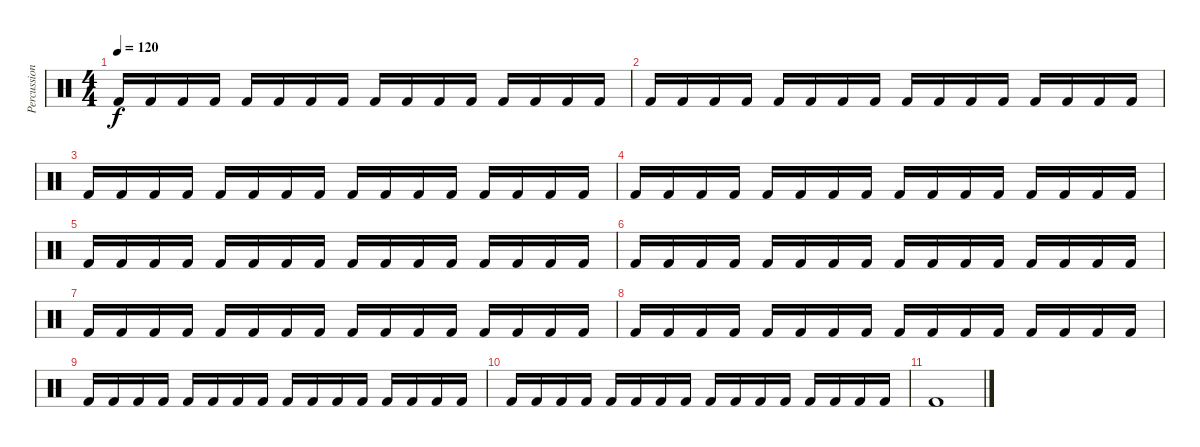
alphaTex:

\track ("Percussioni" "Percussion") {instrument percussion}
\staff
\articulation defaults
\ts (4 4)
\tempo 120
\clef neutral
\ks c "Kick (hit) 2".16{dy f} "Kick (hit) 2".16 "Kick (hit) 2".16 "Kick (hit) 2".16 "Kick (hit) 2".16 "Kick (hit) 2".16 "Kick (hit) 2".16 "Kick (hit) 2".16 "Kick (hit) 2".16 "Kick (hit) 2".16 "Kick (hit) 2".16 "Kick (hit) 2".16 "Kick (hit) 2".16 "Kick (hit) 2".16 "Kick (hit) 2".16 "Kick (hit) 2".16
|
"Kick (hit) 2".16 "Kick (hit) 2".16 "Kick (hit) 2".16 "Kick (hit) 2".16 "Kick (hit) 2".16 "Kick (hit) 2".16 "Kick (hit) 2".16 "Kick (hit) 2".16 "Kick (hit) 2".16 "Kick (hit) 2".16 "Kick (hit) 2".16 "Kick (hit) 2".16 "Kick (hit) 2".16 "Kick (hit) 2".16 "Kick (hit) 2".16 "Kick (hit) 2".16 |
"Kick (hit) 2".16 "Kick (hit) 2".16 "Kick (hit) 2".16 "Kick (hit) 2".16 "Kick (hit) 2".16 "Kick (hit) 2".16 "Kick (hit) 2".16 "Kick (hit) 2".16 "Kick (hit) 2".16 "Kick (hit) 2".16 "Kick (hit) 2".16 "Kick (hit) 2".16 "Kick (hit) 2".16 "Kick (hit) 2".16 "Kick (hit) 2".16 "Kick (hit) 2".16 |
"Kick (hit) 2".16 "Kick (hit) 2".16 "Kick (hit) 2".16 "Kick (hit) 2".16 "Kick (hit) 2".16 "Kick (hit) 2".16 "Kick (hit) 2".16 "Kick (hit) 2".16 "Kick (hit) 2".16 "Kick (hit) 2".16 "Kick (hit) 2".16 "Kick (hit) 2".16 "Kick (hit) 2".16 "Kick (hit) 2".16 "Kick (hit) 2".16 "Kick (hit) 2".16 |
"Kick (hit) 2".16 "Kick (hit) 2".16 "Kick (hit) 2".16 "Kick (hit) 2".16 "Kick (hit) 2".16 "Kick (hit) 2".16 "Kick (hit) 2".16 "Kick (hit) 2".16 "Kick (hit) 2".16 "Kick (hit) 2".16 "Kick (hit) 2".16 "Kick (hit) 2".16 "Kick (hit) 2".16 "Kick (hit) 2".16 "Kick (hit) 2".16 "Kick (hit) 2".16 |
"Kick (hit) 2".16 "Kick (hit) 2".16 "Kick (hit) 2".16 "Kick (hit) 2".16 "Kick (hit) 2".16 "Kick (hit) 2".16 "Kick (hit) 2".16 "Kick (hit) 2".16 "Kick (hit) 2".16 "Kick (hit) 2".16 "Kick (hit) 2".16 "Kick (hit) 2".16 "Kick (hit) 2".16 "Kick (hit) 2".16 "Kick (hit) 2".16 "Kick (hit) 2".16 |
"Kick (hit) 2".16 "Kick (hit) 2".16 "Kick (hit) 2".16 "Kick (hit) 2".16 "Kick (hit) 2".16 "Kick (hit) 2".16 "Kick (hit) 2".16 "Kick (hit) 2".16 "Kick (hit) 2".16 "Kick (hit) 2".16 "Kick (hit) 2".16 "Kick (hit) 2".16 "Kick (hit) 2".16 "Kick (hit) 2".16 "Kick (hit) 2".16 "Kick (hit) 2".16 |
"Kick (hit) 2".16 "Kick (hit) 2".16 "Kick (hit) 2".16 "Kick (hit) 2".16 "Kick (hit) 2".16 "Kick (hit) 2".16 "Kick (hit) 2".16 "Kick (hit) 2".16 "Kick (hit) 2".16 "Kick (hit) 2".16 "Kick (hit) 2".16 "Kick (hit) 2".16 "Kick (hit) 2".16 "Kick (hit) 2".16 "Kick (hit) 2".16 "Kick (hit) 2".16 |
"Kick (hit) 2".16 "Kick (hit) 2".16 "Kick (hit) 2".16 "Kick (hit) 2".16 "Kick (hit) 2".16 "Kick (hit) 2".16 "Kick (hit) 2".16 "Kick (hit) 2".16 "Kick (hit) 2".16 "Kick (hit) 2".16 "Kick (hit) 2".16 "Kick (hit) 2".16 "Kick (hit) 2".16 "Kick (hit) 2".16 "Kick (hit) 2".16 "Kick (hit) 2".16 |
"Kick (hit) 2".16 "Kick (hit) 2".16 "Kick (hit) 2".16 "Kick (hit) 2".16 "Kick (hit) 2".16 "Kick (hit) 2".16 "Kick (hit) 2".16 "Kick (hit) 2".16 "Kick (hit) 2".16 "Kick (hit) 2".16 "Kick (hit) 2".16 "Kick (hit) 2".16 "Kick (hit) 2".16 "Kick (hit) 2".16 "Kick (hit) 2".16 "Kick (hit) 2".16 |
"Kick (hit) 2".1
